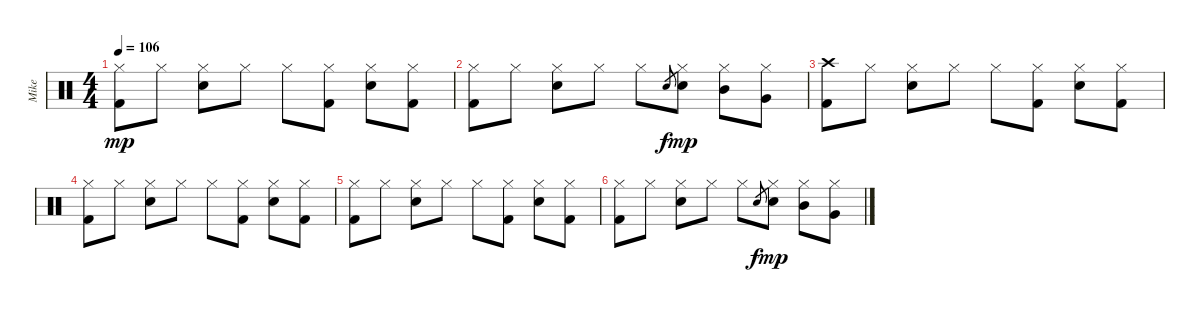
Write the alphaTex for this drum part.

\track ("Mike" "Mike") {instrument percussion}
\staff {score}
\articulation defaults
\ts (4 4)
\tempo 106
\clef neutral
\ks c
("Hi-Hat (closed)" "Kick (hit) 2").8{dy mp volume 11} "Hi-Hat (closed)".8 ("Hi-Hat (closed)" "Electric Snare (hit)").8 "Hi-Hat (closed)".8 "Hi-Hat (closed)".8{volume 10} ("Hi-Hat (closed)" "Kick (hit) 2").8 ("Hi-Hat (closed)" "Electric Snare (hit)").8 ("Hi-Hat (closed)" "Kick (hit) 2").8 |
("Hi-Hat (closed)" "Kick (hit) 2").8{volume 9} "Hi-Hat (closed)".8 ("Hi-Hat (closed)" "Electric Snare (hit)").8 "Hi-Hat (closed)".8 "Hi-Hat (closed)".8{volume 8} "Electric Snare (hit)".8{gr dy f} ("Hi-Hat (closed)" "Electric Snare (hit)").8{dy mp} ("Hi-Hat (closed)" "Mid Tom (hit)").8 ("Hi-Hat (closed)" "Very Low Tom (hit)").8 |
("Crash high (hit)" "Kick (hit) 2").8{volume 7} "Hi-Hat (closed)".8 ("Hi-Hat (closed)" "Electric Snare (hit)").8 "Hi-Hat (closed)".8 "Hi-Hat (closed)".8{volume 6} ("Hi-Hat (closed)" "Kick (hit) 2").8 ("Hi-Hat (closed)" "Electric Snare (hit)").8 ("Hi-Hat (closed)" "Kick (hit) 2").8 |
("Hi-Hat (closed)" "Kick (hit) 2").8{volume 5} "Hi-Hat (closed)".8 ("Hi-Hat (closed)" "Electric Snare (hit)").8 "Hi-Hat (closed)".8 "Hi-Hat (closed)".8{volume 4} ("Hi-Hat (closed)" "Kick (hit) 2").8 ("Hi-Hat (closed)" "Electric Snare (hit)").8 ("Hi-Hat (closed)" "Kick (hit) 2").8 |
("Hi-Hat (closed)" "Kick (hit) 2").8{volume 3} "Hi-Hat (closed)".8 ("Hi-Hat (closed)" "Electric Snare (hit)").8 "Hi-Hat (closed)".8 "Hi-Hat (closed)".8{volume 2} ("Hi-Hat (closed)" "Kick (hit) 2").8 ("Hi-Hat (closed)" "Electric Snare (hit)").8 ("Hi-Hat (closed)" "Kick (hit) 2").8 |
("Hi-Hat (closed)" "Kick (hit) 2").8{volume 1} "Hi-Hat (closed)".8 ("Hi-Hat (closed)" "Electric Snare (hit)").8 "Hi-Hat (closed)".8 "Hi-Hat (closed)".8 "Electric Snare (hit)".8{gr dy f} ("Hi-Hat (closed)" "Electric Snare (hit)").8{dy mp} ("Hi-Hat (closed)" "Mid Tom (hit)").8{volume 0} ("Hi-Hat (closed)" "Very Low Tom (hit)").8
